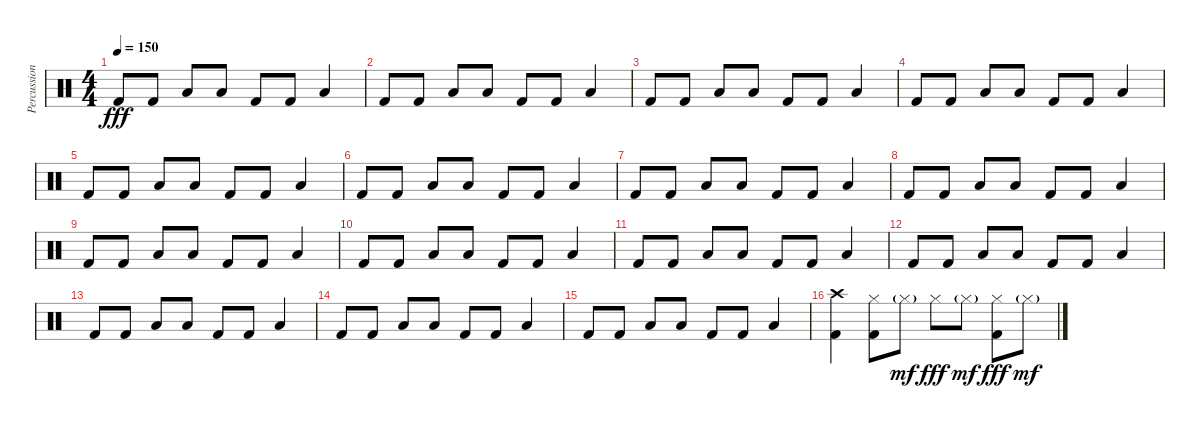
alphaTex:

\track ("Percussion" "Percussion") {instrument percussion}
\staff {score}
\articulation defaults
\ts (4 4)
\tempo 150
\clef neutral
\ks c "Kick (hit) 2".8{dy fff} "Kick (hit) 2".8 "Low Tom (hit)".8 "Low Tom (hit)".8 "Kick (hit) 2".8 "Kick (hit) 2".8 "Low Floor Tom (hit)".4
|
"Kick (hit) 2".8 "Kick (hit) 2".8 "Low Tom (hit)".8 "Low Tom (hit)".8 "Kick (hit) 2".8 "Kick (hit) 2".8 "Low Floor Tom (hit)".4 |
"Kick (hit) 2".8 "Kick (hit) 2".8 "Low Tom (hit)".8 "Low Tom (hit)".8 "Kick (hit) 2".8 "Kick (hit) 2".8 "Low Floor Tom (hit)".4 |
"Kick (hit) 2".8 "Kick (hit) 2".8 "Low Tom (hit)".8 "Low Tom (hit)".8 "Kick (hit) 2".8 "Kick (hit) 2".8 "Low Floor Tom (hit)".4 |
"Kick (hit) 2".8 "Kick (hit) 2".8 "Low Tom (hit)".8 "Low Tom (hit)".8 "Kick (hit) 2".8 "Kick (hit) 2".8 "Low Floor Tom (hit)".4 |
"Kick (hit) 2".8 "Kick (hit) 2".8 "Low Tom (hit)".8 "Low Tom (hit)".8 "Kick (hit) 2".8 "Kick (hit) 2".8 "Low Floor Tom (hit)".4 |
"Kick (hit) 2".8 "Kick (hit) 2".8 "Low Tom (hit)".8 "Low Tom (hit)".8 "Kick (hit) 2".8 "Kick (hit) 2".8 "Low Floor Tom (hit)".4 |
"Kick (hit) 2".8 "Kick (hit) 2".8 "Low Tom (hit)".8 "Low Tom (hit)".8 "Kick (hit) 2".8 "Kick (hit) 2".8 "Low Floor Tom (hit)".4 |
"Kick (hit) 2".8 "Kick (hit) 2".8 "Low Tom (hit)".8 "Low Tom (hit)".8 "Kick (hit) 2".8 "Kick (hit) 2".8 "Low Floor Tom (hit)".4 |
"Kick (hit) 2".8 "Kick (hit) 2".8 "Low Tom (hit)".8 "Low Tom (hit)".8 "Kick (hit) 2".8 "Kick (hit) 2".8 "Low Floor Tom (hit)".4 |
"Kick (hit) 2".8 "Kick (hit) 2".8 "Low Tom (hit)".8 "Low Tom (hit)".8 "Kick (hit) 2".8 "Kick (hit) 2".8 "Low Floor Tom (hit)".4 |
"Kick (hit) 2".8 "Kick (hit) 2".8 "Low Tom (hit)".8 "Low Tom (hit)".8 "Kick (hit) 2".8 "Kick (hit) 2".8 "Low Floor Tom (hit)".4 |
"Kick (hit) 2".8 "Kick (hit) 2".8 "Low Tom (hit)".8 "Low Tom (hit)".8 "Kick (hit) 2".8 "Kick (hit) 2".8 "Low Floor Tom (hit)".4 |
"Kick (hit) 2".8 "Kick (hit) 2".8 "Low Tom (hit)".8 "Low Tom (hit)".8 "Kick (hit) 2".8 "Kick (hit) 2".8 "Low Floor Tom (hit)".4 |
"Kick (hit) 2".8 "Kick (hit) 2".8 "Low Tom (hit)".8 "Low Tom (hit)".8 "Kick (hit) 2".8 "Kick (hit) 2".8 "Low Floor Tom (hit)".4 |
("Crash high (hit)" "Kick (hit) 2").4 ("Hi-Hat (closed)" "Kick (hit) 2").8 "Hi-Hat (closed)"{g}.8{dy mf} "Hi-Hat (closed)".8{dy fff} "Hi-Hat (closed)"{g}.8{dy mf} ("Hi-Hat (closed)" "Kick (hit) 2").8{dy fff} "Hi-Hat (closed)"{g}.8{dy mf}
